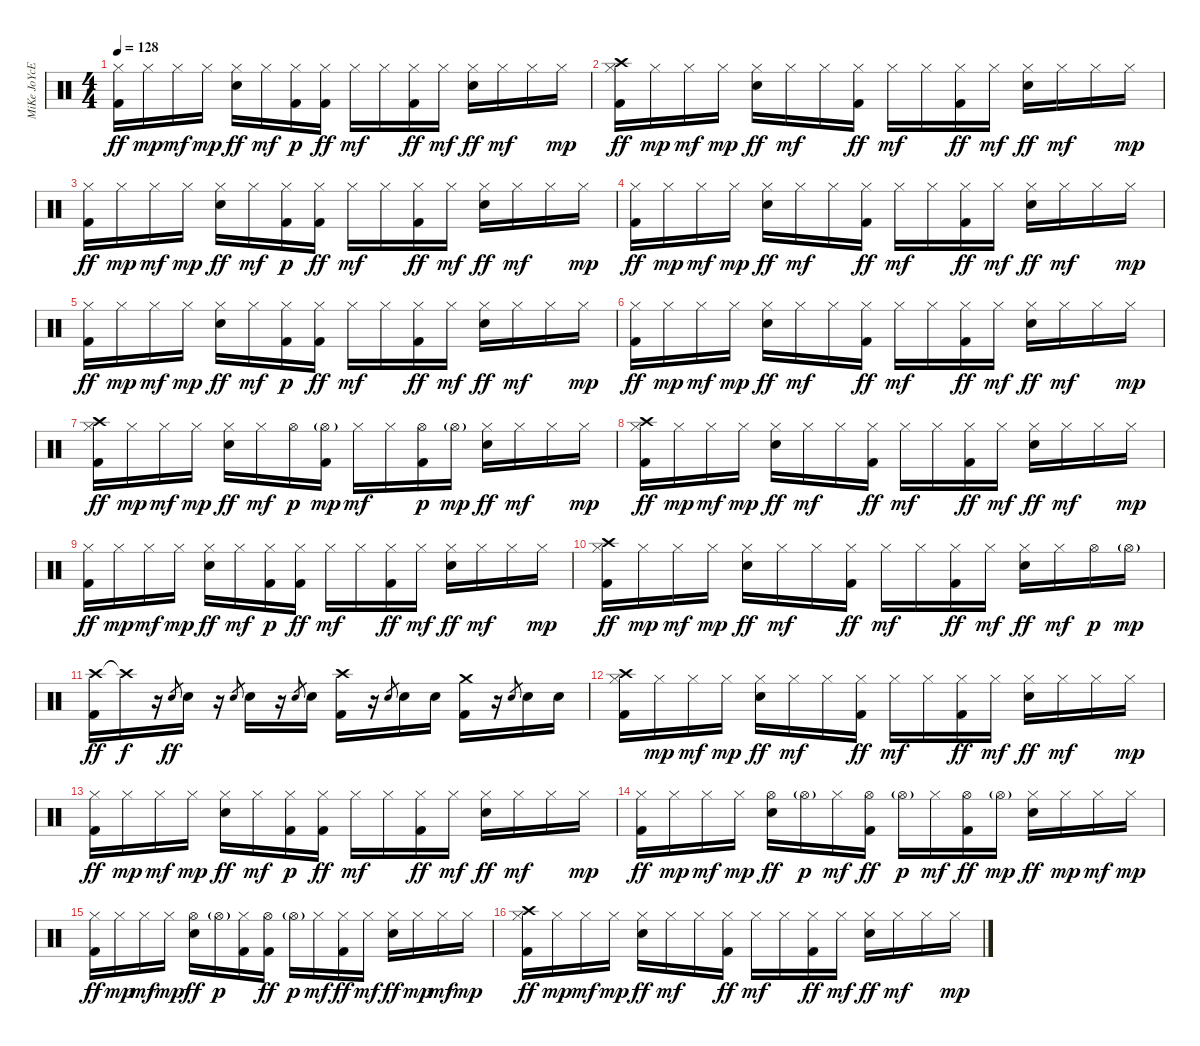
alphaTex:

\track ("MiKe JoYcE" "MiKe JoYcE") {instrument percussion}
\staff {score}
\articulation defaults
\ts (4 4)
\tempo 128
\clef neutral
\ks c
("Hi-Hat (closed)" "Kick (hit) 2").16{dy ff} "Hi-Hat (closed)".16{dy mp} "Hi-Hat (closed)".16{dy mf} "Hi-Hat (closed)".16{dy mp} ("Hi-Hat (closed)" "Electric Snare (hit)").16{dy ff} "Hi-Hat (closed)".16{dy mf} ("Hi-Hat (closed)" "Kick (hit) 2").16{dy p} ("Hi-Hat (closed)" "Kick (hit) 2").16{dy ff} "Hi-Hat (closed)".16{dy mf} "Hi-Hat (closed)".16 ("Hi-Hat (closed)" "Kick (hit) 2").16{dy ff} "Hi-Hat (closed)".16{dy mf} ("Hi-Hat (closed)" "Electric Snare (hit)").16{dy ff} "Hi-Hat (closed)".16{dy mf} "Hi-Hat (closed)".16 "Hi-Hat (closed)".16{dy mp} |
("Hi-Hat (closed)" "Crash high (hit)" "Kick (hit) 2").16{dy ff} "Hi-Hat (closed)".16{dy mp} "Hi-Hat (closed)".16{dy mf} "Hi-Hat (closed)".16{dy mp} ("Hi-Hat (closed)" "Electric Snare (hit)").16{dy ff} "Hi-Hat (closed)".16{dy mf} "Hi-Hat (closed)".16 ("Hi-Hat (closed)" "Kick (hit) 2").16{dy ff} "Hi-Hat (closed)".16{dy mf} "Hi-Hat (closed)".16 ("Hi-Hat (closed)" "Kick (hit) 2").16{dy ff} "Hi-Hat (closed)".16{dy mf} ("Hi-Hat (closed)" "Electric Snare (hit)").16{dy ff} "Hi-Hat (closed)".16{dy mf} "Hi-Hat (closed)".16 "Hi-Hat (closed)".16{dy mp} |
("Hi-Hat (closed)" "Kick (hit) 2").16{dy ff} "Hi-Hat (closed)".16{dy mp} "Hi-Hat (closed)".16{dy mf} "Hi-Hat (closed)".16{dy mp} ("Hi-Hat (closed)" "Electric Snare (hit)").16{dy ff} "Hi-Hat (closed)".16{dy mf} ("Hi-Hat (closed)" "Kick (hit) 2").16{dy p} ("Hi-Hat (closed)" "Kick (hit) 2").16{dy ff} "Hi-Hat (closed)".16{dy mf} "Hi-Hat (closed)".16 ("Hi-Hat (closed)" "Kick (hit) 2").16{dy ff} "Hi-Hat (closed)".16{dy mf} ("Hi-Hat (closed)" "Electric Snare (hit)").16{dy ff} "Hi-Hat (closed)".16{dy mf} "Hi-Hat (closed)".16 "Hi-Hat (closed)".16{dy mp} |
("Hi-Hat (closed)" "Kick (hit) 2").16{dy ff} "Hi-Hat (closed)".16{dy mp} "Hi-Hat (closed)".16{dy mf} "Hi-Hat (closed)".16{dy mp} ("Hi-Hat (closed)" "Electric Snare (hit)").16{dy ff} "Hi-Hat (closed)".16{dy mf} "Hi-Hat (closed)".16 ("Hi-Hat (closed)" "Kick (hit) 2").16{dy ff} "Hi-Hat (closed)".16{dy mf} "Hi-Hat (closed)".16 ("Hi-Hat (closed)" "Kick (hit) 2").16{dy ff} "Hi-Hat (closed)".16{dy mf} ("Hi-Hat (closed)" "Electric Snare (hit)").16{dy ff} "Hi-Hat (closed)".16{dy mf} "Hi-Hat (closed)".16 "Hi-Hat (closed)".16{dy mp} |
("Hi-Hat (closed)" "Kick (hit) 2").16{dy ff} "Hi-Hat (closed)".16{dy mp} "Hi-Hat (closed)".16{dy mf} "Hi-Hat (closed)".16{dy mp} ("Hi-Hat (closed)" "Electric Snare (hit)").16{dy ff} "Hi-Hat (closed)".16{dy mf} ("Hi-Hat (closed)" "Kick (hit) 2").16{dy p} ("Hi-Hat (closed)" "Kick (hit) 2").16{dy ff} "Hi-Hat (closed)".16{dy mf} "Hi-Hat (closed)".16 ("Hi-Hat (closed)" "Kick (hit) 2").16{dy ff} "Hi-Hat (closed)".16{dy mf} ("Hi-Hat (closed)" "Electric Snare (hit)").16{dy ff} "Hi-Hat (closed)".16{dy mf} "Hi-Hat (closed)".16 "Hi-Hat (closed)".16{dy mp} |
("Hi-Hat (closed)" "Kick (hit) 2").16{dy ff} "Hi-Hat (closed)".16{dy mp} "Hi-Hat (closed)".16{dy mf} "Hi-Hat (closed)".16{dy mp} ("Hi-Hat (closed)" "Electric Snare (hit)").16{dy ff} "Hi-Hat (closed)".16{dy mf} "Hi-Hat (closed)".16 ("Hi-Hat (closed)" "Kick (hit) 2").16{dy ff} "Hi-Hat (closed)".16{dy mf} "Hi-Hat (closed)".16 ("Hi-Hat (closed)" "Kick (hit) 2").16{dy ff} "Hi-Hat (closed)".16{dy mf} ("Hi-Hat (closed)" "Electric Snare (hit)").16{dy ff} "Hi-Hat (closed)".16{dy mf} "Hi-Hat (closed)".16 "Hi-Hat (closed)".16{dy mp} |
("Hi-Hat (closed)" "Crash high (hit)" "Kick (hit) 2").16{dy ff} "Hi-Hat (closed)".16{dy mp} "Hi-Hat (closed)".16{dy mf} "Hi-Hat (closed)".16{dy mp} ("Hi-Hat (closed)" "Electric Snare (hit)").16{dy ff} "Hi-Hat (closed)".16{dy mf} "Hi-Hat (open)".16{dy p} ("Hi-Hat (open)"{g} "Kick (hit) 2").16{dy mp volume 11} "Hi-Hat (closed)".16{dy mf volume 12} "Hi-Hat (closed)".16 ("Hi-Hat (open)" "Kick (hit) 2").16{dy p} "Hi-Hat (open)"{g}.16{dy mp volume 11} ("Hi-Hat (closed)" "Electric Snare (hit)").16{dy ff volume 12} "Hi-Hat (closed)".16{dy mf} "Hi-Hat (closed)".16 "Hi-Hat (closed)".16{dy mp} |
("Hi-Hat (closed)" "Crash high (hit)" "Kick (hit) 2").16{dy ff} "Hi-Hat (closed)".16{dy mp} "Hi-Hat (closed)".16{dy mf} "Hi-Hat (closed)".16{dy mp} ("Hi-Hat (closed)" "Electric Snare (hit)").16{dy ff} "Hi-Hat (closed)".16{dy mf} "Hi-Hat (closed)".16 ("Hi-Hat (closed)" "Kick (hit) 2").16{dy ff} "Hi-Hat (closed)".16{dy mf} "Hi-Hat (closed)".16 ("Hi-Hat (closed)" "Kick (hit) 2").16{dy ff} "Hi-Hat (closed)".16{dy mf} ("Hi-Hat (closed)" "Electric Snare (hit)").16{dy ff} "Hi-Hat (closed)".16{dy mf} "Hi-Hat (closed)".16 "Hi-Hat (closed)".16{dy mp} |
("Hi-Hat (closed)" "Kick (hit) 2").16{dy ff} "Hi-Hat (closed)".16{dy mp} "Hi-Hat (closed)".16{dy mf} "Hi-Hat (closed)".16{dy mp} ("Hi-Hat (closed)" "Electric Snare (hit)").16{dy ff} "Hi-Hat (closed)".16{dy mf} ("Hi-Hat (closed)" "Kick (hit) 2").16{dy p} ("Hi-Hat (closed)" "Kick (hit) 2").16{dy ff} "Hi-Hat (closed)".16{dy mf} "Hi-Hat (closed)".16 ("Hi-Hat (closed)" "Kick (hit) 2").16{dy ff} "Hi-Hat (closed)".16{dy mf} ("Hi-Hat (closed)" "Electric Snare (hit)").16{dy ff} "Hi-Hat (closed)".16{dy mf} "Hi-Hat (closed)".16 "Hi-Hat (closed)".16{dy mp} |
("Hi-Hat (closed)" "Crash high (hit)" "Kick (hit) 2").16{dy ff} "Hi-Hat (closed)".16{dy mp} "Hi-Hat (closed)".16{dy mf} "Hi-Hat (closed)".16{dy mp} ("Hi-Hat (closed)" "Electric Snare (hit)").16{dy ff} "Hi-Hat (closed)".16{dy mf} "Hi-Hat (closed)".16 ("Hi-Hat (closed)" "Kick (hit) 2").16{dy ff} "Hi-Hat (closed)".16{dy mf} "Hi-Hat (closed)".16 ("Hi-Hat (closed)" "Kick (hit) 2").16{dy ff} "Hi-Hat (closed)".16{dy mf} ("Hi-Hat (closed)" "Electric Snare (hit)").16{dy ff} "Hi-Hat (closed)".16{dy mf} "Hi-Hat (open)".16{dy p} "Hi-Hat (open)"{g}.16{dy mp} |
("Crash high (hit)" "Kick (hit) 2").16{dy ff} "Crash high (hit)"{t}.16{dy f} r.16 "Electric Snare (hit)".8{gr dy ff} "Electric Snare (hit)".16 r.16 "Electric Snare (hit)".8{gr} "Electric Snare (hit)".16 r.16 "Electric Snare (hit)".8{gr} "Electric Snare (hit)".16 ("Crash high (hit)" "Kick (hit) 2").16 r.16 "Electric Snare (hit)".8{gr} "Electric Snare (hit)".16 "Electric Snare (hit)".16 ("Crash medium (hit)" "Kick (hit) 2").16 r.16 "Electric Snare (hit)".8{gr} "Electric Snare (hit)".16 "Electric Snare (hit)".16 |
("Hi-Hat (closed)" "Crash high (hit)" "Kick (hit) 2").16 "Hi-Hat (closed)".16{dy mp} "Hi-Hat (closed)".16{dy mf} "Hi-Hat (closed)".16{dy mp} ("Hi-Hat (closed)" "Electric Snare (hit)").16{dy ff} "Hi-Hat (closed)".16{dy mf} "Hi-Hat (closed)".16 ("Hi-Hat (closed)" "Kick (hit) 2").16{dy ff} "Hi-Hat (closed)".16{dy mf} "Hi-Hat (closed)".16 ("Hi-Hat (closed)" "Kick (hit) 2").16{dy ff} "Hi-Hat (closed)".16{dy mf} ("Hi-Hat (closed)" "Electric Snare (hit)").16{dy ff} "Hi-Hat (closed)".16{dy mf} "Hi-Hat (closed)".16 "Hi-Hat (closed)".16{dy mp} |
("Hi-Hat (closed)" "Kick (hit) 2").16{dy ff} "Hi-Hat (closed)".16{dy mp} "Hi-Hat (closed)".16{dy mf} "Hi-Hat (closed)".16{dy mp} ("Hi-Hat (closed)" "Electric Snare (hit)").16{dy ff} "Hi-Hat (closed)".16{dy mf} ("Hi-Hat (closed)" "Kick (hit) 2").16{dy p} ("Hi-Hat (closed)" "Kick (hit) 2").16{dy ff} "Hi-Hat (closed)".16{dy mf} "Hi-Hat (closed)".16 ("Hi-Hat (closed)" "Kick (hit) 2").16{dy ff} "Hi-Hat (closed)".16{dy mf} ("Hi-Hat (closed)" "Electric Snare (hit)").16{dy ff} "Hi-Hat (closed)".16{dy mf} "Hi-Hat (closed)".16 "Hi-Hat (closed)".16{dy mp} |
("Hi-Hat (closed)" "Kick (hit) 2").16{dy ff} "Hi-Hat (closed)".16{dy mp} "Hi-Hat (closed)".16{dy mf} "Hi-Hat (closed)".16{dy mp} ("Hi-Hat (open)" "Electric Snare (hit)").16{dy ff} "Hi-Hat (open)"{g}.16{dy p volume 11} "Hi-Hat (closed)".16{dy mf volume 12} ("Hi-Hat (open)" "Kick (hit) 2").16{dy ff volume 11} "Hi-Hat (open)"{g}.16{dy p} "Hi-Hat (closed)".16{dy mf volume 12} ("Hi-Hat (open)" "Kick (hit) 2").16{dy ff volume 11} "Hi-Hat (open)"{g}.16{dy mp} ("Hi-Hat (closed)" "Electric Snare (hit)").16{dy ff volume 12} "Hi-Hat (closed)".16{dy mp} "Hi-Hat (closed)".16{dy mf} "Hi-Hat (closed)".16{dy mp} |
("Hi-Hat (closed)" "Kick (hit) 2").16{dy ff} "Hi-Hat (closed)".16{dy mp} "Hi-Hat (closed)".16{dy mf} "Hi-Hat (closed)".16{dy mp} ("Hi-Hat (open)" "Electric Snare (hit)").16{dy ff} "Hi-Hat (open)"{g}.16{dy p} ("Hi-Hat (closed)" "Kick (hit) 2").16 ("Hi-Hat (open)" "Kick (hit) 2").16{dy ff volume 11} "Hi-Hat (open)"{g}.16{dy p} "Hi-Hat (closed)".16{dy mf volume 12} ("Hi-Hat (closed)" "Kick (hit) 2").16{dy ff} "Hi-Hat (closed)".16{dy mf} ("Hi-Hat (closed)" "Electric Snare (hit)").16{dy ff} "Hi-Hat (closed)".16{dy mp} "Hi-Hat (closed)".16{dy mf} "Hi-Hat (closed)".16{dy mp} |
("Hi-Hat (closed)" "Crash high (hit)" "Kick (hit) 2").16{dy ff} "Hi-Hat (closed)".16{dy mp} "Hi-Hat (closed)".16{dy mf} "Hi-Hat (closed)".16{dy mp} ("Hi-Hat (closed)" "Electric Snare (hit)").16{dy ff} "Hi-Hat (closed)".16{dy mf} "Hi-Hat (closed)".16 ("Hi-Hat (closed)" "Kick (hit) 2").16{dy ff} "Hi-Hat (closed)".16{dy mf} "Hi-Hat (closed)".16 ("Hi-Hat (closed)" "Kick (hit) 2").16{dy ff} "Hi-Hat (closed)".16{dy mf} ("Hi-Hat (closed)" "Electric Snare (hit)").16{dy ff} "Hi-Hat (closed)".16{dy mf} "Hi-Hat (closed)".16 "Hi-Hat (closed)".16{dy mp}
